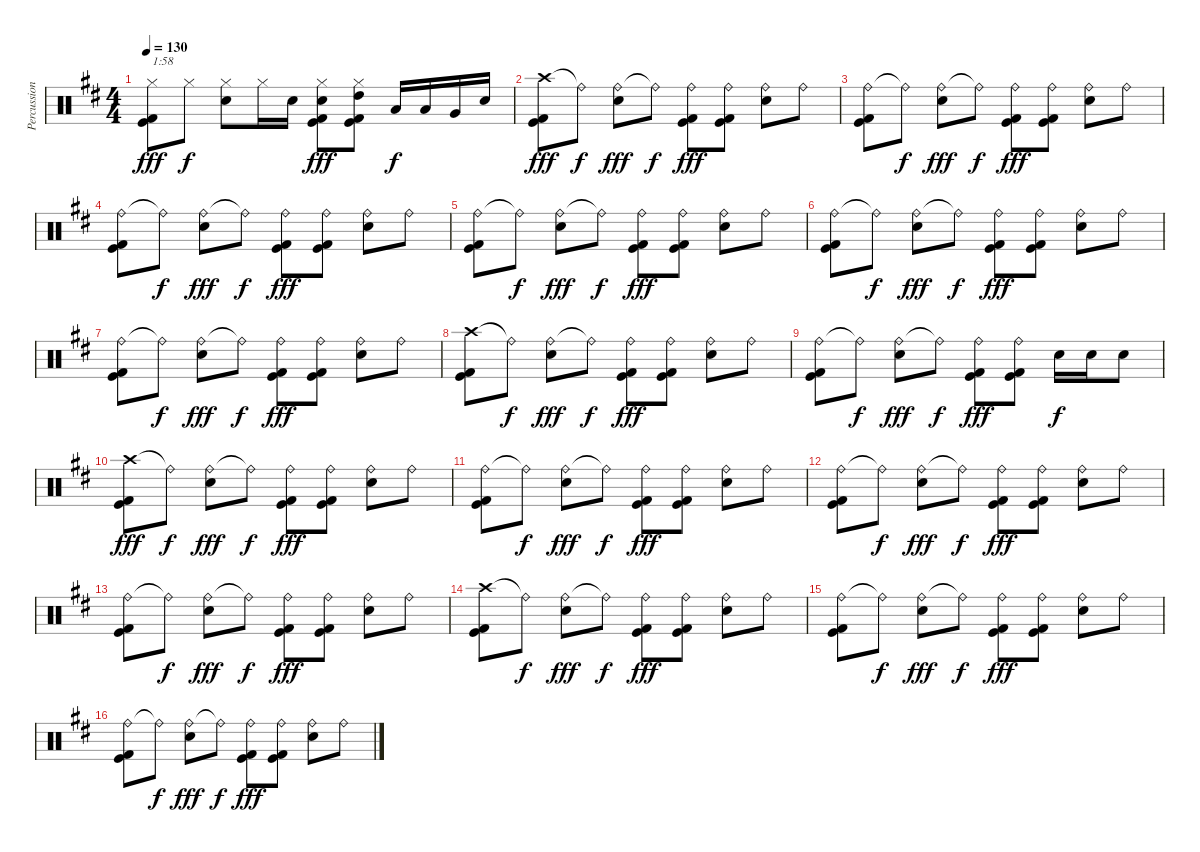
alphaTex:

\track ("Percussion" "Percussion") {instrument percussion}
\staff {score}
\articulation defaults
\ts (4 4)
\tempo 130
\clef neutral
\ks d
("Hi-Hat (closed)" "Kick (hit)" "Kick (hit) 2").8{txt "1:58" dy fff} "Hi-Hat (closed)".8{dy f} ("Hi-Hat (closed)" "Electric Snare (hit)").8 "Hi-Hat (closed)".16 "Electric Snare (hit)".16 ("Hi-Hat (closed)" "Electric Snare (hit)" "Kick (hit)" "Kick (hit) 2").8{dy fff} ("Hi-Hat (closed)" "High Tom (hit)" "Kick (hit)" "Kick (hit) 2").8 "Low Tom (hit)".16{dy f} "Low Tom (hit)".16 "Very Low Tom (hit)".16 "Electric Snare (hit)".16 |
("Crash high (hit)" "Kick (hit)" "Kick (hit) 2").8{dy fff} "Ride (bell)"{t}.8{dy f} ("Ride (bell)" "Electric Snare (hit)").8{dy fff} "Ride (bell)"{t}.8{dy f} ("Ride (bell)" "Kick (hit)" "Kick (hit) 2").8{dy fff} ("Ride (bell)" "Kick (hit)" "Kick (hit) 2").8 ("Ride (bell)" "Electric Snare (hit)").8 "Ride (bell)".8 |
("Ride (bell)" "Kick (hit)" "Kick (hit) 2").8 "Ride (bell)"{t}.8{dy f} ("Ride (bell)" "Electric Snare (hit)").8{dy fff} "Ride (bell)"{t}.8{dy f} ("Ride (bell)" "Kick (hit)" "Kick (hit) 2").8{dy fff} ("Ride (bell)" "Kick (hit)" "Kick (hit) 2").8 ("Ride (bell)" "Electric Snare (hit)").8 "Ride (bell)".8 |
("Ride (bell)" "Kick (hit)" "Kick (hit) 2").8 "Ride (bell)"{t}.8{dy f} ("Ride (bell)" "Electric Snare (hit)").8{dy fff} "Ride (bell)"{t}.8{dy f} ("Ride (bell)" "Kick (hit)" "Kick (hit) 2").8{dy fff} ("Ride (bell)" "Kick (hit)" "Kick (hit) 2").8 ("Ride (bell)" "Electric Snare (hit)").8 "Ride (bell)".8 |
("Ride (bell)" "Kick (hit)" "Kick (hit) 2").8 "Ride (bell)"{t}.8{dy f} ("Ride (bell)" "Electric Snare (hit)").8{dy fff} "Ride (bell)"{t}.8{dy f} ("Ride (bell)" "Kick (hit)" "Kick (hit) 2").8{dy fff} ("Ride (bell)" "Kick (hit)" "Kick (hit) 2").8 ("Ride (bell)" "Electric Snare (hit)").8 "Ride (bell)".8 |
("Ride (bell)" "Kick (hit)" "Kick (hit) 2").8 "Ride (bell)"{t}.8{dy f} ("Ride (bell)" "Electric Snare (hit)").8{dy fff} "Ride (bell)"{t}.8{dy f} ("Ride (bell)" "Kick (hit)" "Kick (hit) 2").8{dy fff} ("Ride (bell)" "Kick (hit)" "Kick (hit) 2").8 ("Ride (bell)" "Electric Snare (hit)").8 "Ride (bell)".8 |
("Ride (bell)" "Kick (hit)" "Kick (hit) 2").8 "Ride (bell)"{t}.8{dy f} ("Ride (bell)" "Electric Snare (hit)").8{dy fff} "Ride (bell)"{t}.8{dy f} ("Ride (bell)" "Kick (hit)" "Kick (hit) 2").8{dy fff} ("Ride (bell)" "Kick (hit)" "Kick (hit) 2").8 ("Ride (bell)" "Electric Snare (hit)").8 "Ride (bell)".8 |
("Crash high (hit)" "Kick (hit)" "Kick (hit) 2").8 "Ride (bell)"{t}.8{dy f} ("Ride (bell)" "Electric Snare (hit)").8{dy fff} "Ride (bell)"{t}.8{dy f} ("Ride (bell)" "Kick (hit)" "Kick (hit) 2").8{dy fff} ("Ride (bell)" "Kick (hit)" "Kick (hit) 2").8 ("Ride (bell)" "Electric Snare (hit)").8 "Ride (bell)".8 |
("Ride (bell)" "Kick (hit)" "Kick (hit) 2").8 "Ride (bell)"{t}.8{dy f} ("Ride (bell)" "Electric Snare (hit)").8{dy fff} "Ride (bell)"{t}.8{dy f} ("Ride (bell)" "Kick (hit)" "Kick (hit) 2").8{dy fff} ("Ride (bell)" "Kick (hit)" "Kick (hit) 2").8 "Electric Snare (hit)".16{dy f} "Electric Snare (hit)".16 "Electric Snare (hit)".8 |
("Crash high (hit)" "Kick (hit)" "Kick (hit) 2").8{dy fff} "Ride (bell)"{t}.8{dy f} ("Ride (bell)" "Electric Snare (hit)").8{dy fff} "Ride (bell)"{t}.8{dy f} ("Ride (bell)" "Kick (hit)" "Kick (hit) 2").8{dy fff} ("Ride (bell)" "Kick (hit)" "Kick (hit) 2").8 ("Ride (bell)" "Electric Snare (hit)").8 "Ride (bell)".8 |
("Ride (bell)" "Kick (hit)" "Kick (hit) 2").8 "Ride (bell)"{t}.8{dy f} ("Ride (bell)" "Electric Snare (hit)").8{dy fff} "Ride (bell)"{t}.8{dy f} ("Ride (bell)" "Kick (hit)" "Kick (hit) 2").8{dy fff} ("Ride (bell)" "Kick (hit)" "Kick (hit) 2").8 ("Ride (bell)" "Electric Snare (hit)").8 "Ride (bell)".8 |
("Ride (bell)" "Kick (hit)" "Kick (hit) 2").8 "Ride (bell)"{t}.8{dy f} ("Ride (bell)" "Electric Snare (hit)").8{dy fff} "Ride (bell)"{t}.8{dy f} ("Ride (bell)" "Kick (hit)" "Kick (hit) 2").8{dy fff} ("Ride (bell)" "Kick (hit)" "Kick (hit) 2").8 ("Ride (bell)" "Electric Snare (hit)").8 "Ride (bell)".8 |
("Ride (bell)" "Kick (hit)" "Kick (hit) 2").8 "Ride (bell)"{t}.8{dy f} ("Ride (bell)" "Electric Snare (hit)").8{dy fff} "Ride (bell)"{t}.8{dy f} ("Ride (bell)" "Kick (hit)" "Kick (hit) 2").8{dy fff} ("Ride (bell)" "Kick (hit)" "Kick (hit) 2").8 ("Ride (bell)" "Electric Snare (hit)").8 "Ride (bell)".8 |
("Crash high (hit)" "Kick (hit)" "Kick (hit) 2").8 "Ride (bell)"{t}.8{dy f} ("Ride (bell)" "Electric Snare (hit)").8{dy fff} "Ride (bell)"{t}.8{dy f} ("Ride (bell)" "Kick (hit)" "Kick (hit) 2").8{dy fff} ("Ride (bell)" "Kick (hit)" "Kick (hit) 2").8 ("Ride (bell)" "Electric Snare (hit)").8 "Ride (bell)".8 |
("Ride (bell)" "Kick (hit)" "Kick (hit) 2").8 "Ride (bell)"{t}.8{dy f} ("Ride (bell)" "Electric Snare (hit)").8{dy fff} "Ride (bell)"{t}.8{dy f} ("Ride (bell)" "Kick (hit)" "Kick (hit) 2").8{dy fff} ("Ride (bell)" "Kick (hit)" "Kick (hit) 2").8 ("Ride (bell)" "Electric Snare (hit)").8 "Ride (bell)".8 |
("Ride (bell)" "Kick (hit)" "Kick (hit) 2").8 "Ride (bell)"{t}.8{dy f} ("Ride (bell)" "Electric Snare (hit)").8{dy fff} "Ride (bell)"{t}.8{dy f} ("Ride (bell)" "Kick (hit)" "Kick (hit) 2").8{dy fff} ("Ride (bell)" "Kick (hit)" "Kick (hit) 2").8 ("Ride (bell)" "Electric Snare (hit)").8 "Ride (bell)".8
